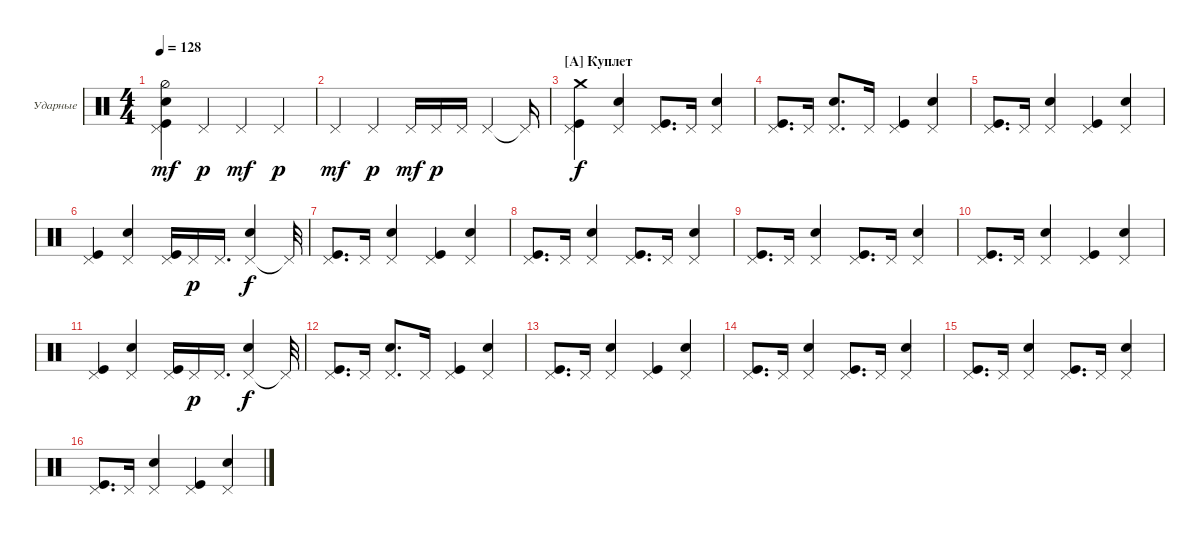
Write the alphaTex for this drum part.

\defaultSystemsLayout 4
\bracketExtendMode groupsimilarinstruments
\firstSystemTrackNameOrientation horizontal
\otherSystemsTrackNameOrientation horizontal
\track ("Е. Кулаков" "Ударные") {instrument percussion}
\staff {score}
\articulation defaults
\ts (4 4)
\tempo 128
\clef neutral
\ks c
("Snare (hit) 2" "Kick (hit)" "Pedal Hi-Hat (hit)" "Hi-Hat (half)").4{dy mf} "Pedal Hi-Hat (hit)".4{dy p} "Pedal Hi-Hat (hit)".4{dy mf} "Pedal Hi-Hat (hit)".4{dy p} |
"Pedal Hi-Hat (hit)".4{dy mf} "Pedal Hi-Hat (hit)".4{dy p} "Pedal Hi-Hat (hit)".16{dy mf} "Pedal Hi-Hat (hit)".16{dy p} "Pedal Hi-Hat (hit)".16 "Pedal Hi-Hat (hit)".4 "Pedal Hi-Hat (hit)"{t}.16 |
\section ("A" "Куплет")
("Kick (hit)" "Crash medium (hit)" "Pedal Hi-Hat (hit)").4{dy f} ("Pedal Hi-Hat (hit)" "Snare (hit) 2").4 ("Pedal Hi-Hat (hit)" "Kick (hit)").8{d} "Pedal Hi-Hat (hit)".16 ("Pedal Hi-Hat (hit)" "Snare (hit) 2").4 |
("Pedal Hi-Hat (hit)" "Kick (hit)").8{d} "Pedal Hi-Hat (hit)".16 ("Pedal Hi-Hat (hit)" "Snare (hit) 2").8{d} "Pedal Hi-Hat (hit)".16 ("Pedal Hi-Hat (hit)" "Kick (hit)").4 ("Pedal Hi-Hat (hit)" "Snare (hit) 2").4 |
("Pedal Hi-Hat (hit)" "Kick (hit)").8{d} "Pedal Hi-Hat (hit)".16 ("Pedal Hi-Hat (hit)" "Snare (hit) 2").4 ("Pedal Hi-Hat (hit)" "Kick (hit)").4 ("Pedal Hi-Hat (hit)" "Snare (hit) 2").4 |
("Pedal Hi-Hat (hit)" "Kick (hit)").4 ("Pedal Hi-Hat (hit)" "Snare (hit) 2").4 ("Pedal Hi-Hat (hit)" "Kick (hit)").16 "Pedal Hi-Hat (hit)".16{dy p} "Pedal Hi-Hat (hit)".16{d} ("Pedal Hi-Hat (hit)" "Snare (hit) 2").4{dy f} "Pedal Hi-Hat (hit)"{t}.32 |
("Pedal Hi-Hat (hit)" "Kick (hit)").8{d} "Pedal Hi-Hat (hit)".16 ("Pedal Hi-Hat (hit)" "Snare (hit) 2").4 ("Pedal Hi-Hat (hit)" "Kick (hit)").4 ("Pedal Hi-Hat (hit)" "Snare (hit) 2").4 |
("Pedal Hi-Hat (hit)" "Kick (hit)").8{d} "Pedal Hi-Hat (hit)".16 ("Pedal Hi-Hat (hit)" "Snare (hit) 2").4 ("Pedal Hi-Hat (hit)" "Kick (hit)").8{d} "Pedal Hi-Hat (hit)".16 ("Pedal Hi-Hat (hit)" "Snare (hit) 2").4 |
("Pedal Hi-Hat (hit)" "Kick (hit)").8{d} "Pedal Hi-Hat (hit)".16 ("Pedal Hi-Hat (hit)" "Snare (hit) 2").4 ("Pedal Hi-Hat (hit)" "Kick (hit)").8{d} "Pedal Hi-Hat (hit)".16 ("Pedal Hi-Hat (hit)" "Snare (hit) 2").4 |
("Pedal Hi-Hat (hit)" "Kick (hit)").8{d} "Pedal Hi-Hat (hit)".16 ("Pedal Hi-Hat (hit)" "Snare (hit) 2").4 ("Pedal Hi-Hat (hit)" "Kick (hit)").4 ("Pedal Hi-Hat (hit)" "Snare (hit) 2").4 |
("Pedal Hi-Hat (hit)" "Kick (hit)").4 ("Pedal Hi-Hat (hit)" "Snare (hit) 2").4 ("Pedal Hi-Hat (hit)" "Kick (hit)").16 "Pedal Hi-Hat (hit)".16{dy p} "Pedal Hi-Hat (hit)".16{d} ("Pedal Hi-Hat (hit)" "Snare (hit) 2").4{dy f} "Pedal Hi-Hat (hit)"{t}.32 |
("Pedal Hi-Hat (hit)" "Kick (hit)").8{d} "Pedal Hi-Hat (hit)".16 ("Pedal Hi-Hat (hit)" "Snare (hit) 2").8{d} "Pedal Hi-Hat (hit)".16 ("Pedal Hi-Hat (hit)" "Kick (hit)").4 ("Pedal Hi-Hat (hit)" "Snare (hit) 2").4 |
("Pedal Hi-Hat (hit)" "Kick (hit)").8{d} "Pedal Hi-Hat (hit)".16 ("Pedal Hi-Hat (hit)" "Snare (hit) 2").4 ("Pedal Hi-Hat (hit)" "Kick (hit)").4 ("Pedal Hi-Hat (hit)" "Snare (hit) 2").4 |
("Pedal Hi-Hat (hit)" "Kick (hit)").8{d} "Pedal Hi-Hat (hit)".16 ("Pedal Hi-Hat (hit)" "Snare (hit) 2").4 ("Pedal Hi-Hat (hit)" "Kick (hit)").8{d} "Pedal Hi-Hat (hit)".16 ("Pedal Hi-Hat (hit)" "Snare (hit) 2").4 |
("Pedal Hi-Hat (hit)" "Kick (hit)").8{d} "Pedal Hi-Hat (hit)".16 ("Pedal Hi-Hat (hit)" "Snare (hit) 2").4 ("Pedal Hi-Hat (hit)" "Kick (hit)").8{d} "Pedal Hi-Hat (hit)".16 ("Pedal Hi-Hat (hit)" "Snare (hit) 2").4 |
("Pedal Hi-Hat (hit)" "Kick (hit)").8{d} "Pedal Hi-Hat (hit)".16 ("Pedal Hi-Hat (hit)" "Snare (hit) 2").4 ("Pedal Hi-Hat (hit)" "Kick (hit)").4 ("Pedal Hi-Hat (hit)" "Snare (hit) 2").4
